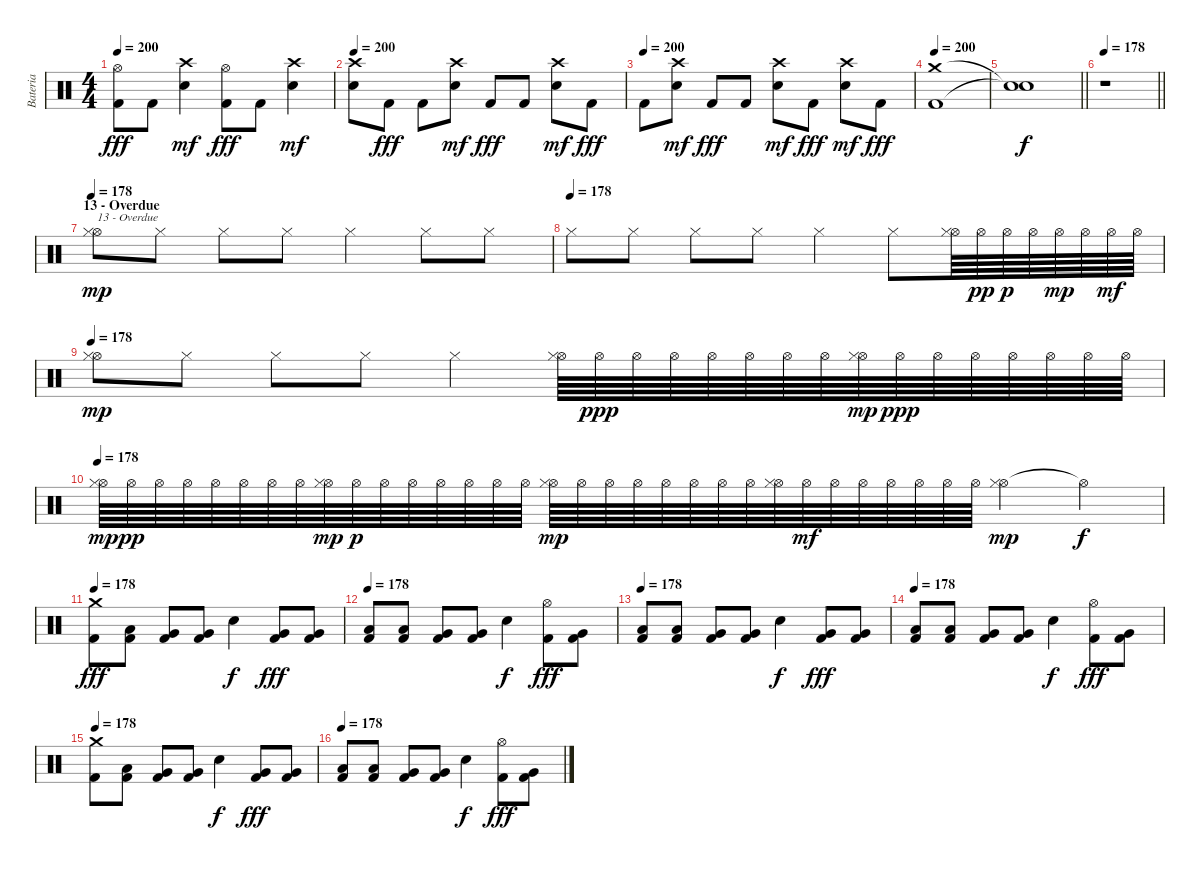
\track ("Bateria" "Bateria") {instrument percussion}
\staff {score}
\articulation defaults
\ts (4 4)
\tempo 200
\clef neutral
\ks c
("Hi-Hat (open)" "Kick (hit) 2").8{dy fff} "Kick (hit) 2".8 ("Crash high (hit)" "Electric Snare (hit)").4{dy mf} ("Hi-Hat (open)" "Kick (hit) 2").8{dy fff} "Kick (hit) 2".8 ("Crash high (hit)" "Electric Snare (hit)").4{dy mf} |
\tempo 200
("Crash high (hit)" "Electric Snare (hit)").8 "Kick (hit) 2".8{dy fff} "Kick (hit) 2".8 ("Crash high (hit)" "Electric Snare (hit)").8{dy mf} "Kick (hit) 2".8{dy fff} "Kick (hit) 2".8 ("Crash high (hit)" "Electric Snare (hit)").8{dy mf} "Kick (hit) 2".8{dy fff} |
\tempo (200)
"Kick (hit) 2".8 ("Crash high (hit)" "Electric Snare (hit)").8{dy mf} "Kick (hit) 2".8{dy fff} "Kick (hit) 2".8 ("Crash high (hit)" "Electric Snare (hit)").8{dy mf} "Kick (hit) 2".8{dy fff} ("Crash high (hit)" "Electric Snare (hit)").8{dy mf} "Kick (hit) 2".8{dy fff} |
\tempo 200
("Crash medium (hit)" "Kick (hit) 2").1 |
\barLineRight lightlight
("Snare (hit)"{t} "Snare (hit)"{t}).1{dy f} |
\tempo 178
\barLineRight lightlight
r.1 |
\section ("" "13 - Overdue")
\tempo 178
("Hi-Hat (open)" "Hi-Hat (closed)").8{txt "13 - Overdue" dy mp} "Hi-Hat (closed)".8 "Hi-Hat (closed)".8 "Hi-Hat (closed)".8 "Hi-Hat (closed)".4 "Hi-Hat (closed)".8 "Hi-Hat (closed)".8 |
\tempo (178)
"Hi-Hat (closed)".8 "Hi-Hat (closed)".8 "Hi-Hat (closed)".8 "Hi-Hat (closed)".8 "Hi-Hat (closed)".4 "Hi-Hat (closed)".8 ("Hi-Hat (open)" "Hi-Hat (closed)").64 "Hi-Hat (open)".64{dy pp} "Hi-Hat (open)".64{dy p} "Hi-Hat (open)".64 "Hi-Hat (open)".64{dy mp} "Hi-Hat (open)".64 "Hi-Hat (open)".64{dy mf} "Hi-Hat (open)".64 |
\tempo 178
("Hi-Hat (open)" "Hi-Hat (closed)").8{dy mp} "Hi-Hat (closed)".8 "Hi-Hat (closed)".8 "Hi-Hat (closed)".8 "Hi-Hat (closed)".4 ("Hi-Hat (open)" "Hi-Hat (closed)").64 "Hi-Hat (open)".64{dy ppp} "Hi-Hat (open)".64 "Hi-Hat (open)".64 "Hi-Hat (open)".64 "Hi-Hat (open)".64 "Hi-Hat (open)".64 "Hi-Hat (open)".64 ("Hi-Hat (open)" "Hi-Hat (closed)").64{dy mp} "Hi-Hat (open)".64{dy ppp} "Hi-Hat (open)".64 "Hi-Hat (open)".64 "Hi-Hat (open)".64 "Hi-Hat (open)".64 "Hi-Hat (open)".64 "Hi-Hat (open)".64 |
\tempo 178
("Hi-Hat (open)" "Hi-Hat (closed)").64{dy mp} "Hi-Hat (open)".64{dy pp} "Hi-Hat (open)".64 "Hi-Hat (open)".64 "Hi-Hat (open)".64 "Hi-Hat (open)".64 "Hi-Hat (open)".64 "Hi-Hat (open)".64 ("Hi-Hat (open)" "Hi-Hat (closed)").64{dy mp} "Hi-Hat (open)".64{dy p} "Hi-Hat (open)".64 "Hi-Hat (open)".64 "Hi-Hat (open)".64 "Hi-Hat (open)".64 "Hi-Hat (open)".64 "Hi-Hat (open)".64 ("Hi-Hat (open)" "Hi-Hat (closed)").64{dy mp} "Hi-Hat (open)".64 "Hi-Hat (open)".64 "Hi-Hat (open)".64 "Hi-Hat (open)".64 "Hi-Hat (open)".64 "Hi-Hat (open)".64 "Hi-Hat (open)".64 ("Hi-Hat (open)" "Hi-Hat (closed)").64 "Hi-Hat (open)".64{dy mf} "Hi-Hat (open)".64 "Hi-Hat (open)".64 "Hi-Hat (open)".64 "Hi-Hat (open)".64 "Hi-Hat (open)".64 "Hi-Hat (open)".64 ("Hi-Hat (open)" "Hi-Hat (closed)").4{dy mp} "Hi-Hat (open)"{t}.4{dy f} |
\tempo 178
("Crash medium (hit)" "Kick (hit) 2").8{dy fff} ("Low Tom (hit)" "Kick (hit) 2").8 ("Very Low Tom (hit)" "Kick (hit) 2").8 ("Very Low Tom (hit)" "Kick (hit) 2").8 "Electric Snare (hit)".4{dy f} ("Very Low Tom (hit)" "Kick (hit) 2").8{dy fff} ("Very Low Tom (hit)" "Kick (hit) 2").8 |
\tempo 178
("Low Tom (hit)" "Kick (hit) 2").8 ("Low Tom (hit)" "Kick (hit) 2").8 ("Very Low Tom (hit)" "Kick (hit) 2").8 ("Very Low Tom (hit)" "Kick (hit) 2").8 "Electric Snare (hit)".4{dy f} ("Hi-Hat (open)" "Kick (hit) 2").8{dy fff} ("Very Low Tom (hit)" "Kick (hit) 2").8 |
\tempo 178
("Low Tom (hit)" "Kick (hit) 2").8 ("Low Tom (hit)" "Kick (hit) 2").8 ("Very Low Tom (hit)" "Kick (hit) 2").8 ("Very Low Tom (hit)" "Kick (hit) 2").8 "Electric Snare (hit)".4{dy f} ("Very Low Tom (hit)" "Kick (hit) 2").8{dy fff} ("Very Low Tom (hit)" "Kick (hit) 2").8 |
\tempo 178
("Low Tom (hit)" "Kick (hit) 2").8 ("Low Tom (hit)" "Kick (hit) 2").8 ("Very Low Tom (hit)" "Kick (hit) 2").8 ("Very Low Tom (hit)" "Kick (hit) 2").8 "Electric Snare (hit)".4{dy f} ("Hi-Hat (open)" "Kick (hit) 2").8{dy fff} ("Very Low Tom (hit)" "Kick (hit) 2").8 |
\tempo 178
("Crash medium (hit)" "Kick (hit) 2").8 ("Low Tom (hit)" "Kick (hit) 2").8 ("Very Low Tom (hit)" "Kick (hit) 2").8 ("Very Low Tom (hit)" "Kick (hit) 2").8 "Electric Snare (hit)".4{dy f} ("Very Low Tom (hit)" "Kick (hit) 2").8{dy fff} ("Very Low Tom (hit)" "Kick (hit) 2").8 |
\tempo 178
("Low Tom (hit)" "Kick (hit) 2").8 ("Low Tom (hit)" "Kick (hit) 2").8 ("Very Low Tom (hit)" "Kick (hit) 2").8 ("Very Low Tom (hit)" "Kick (hit) 2").8 "Electric Snare (hit)".4{dy f} ("Hi-Hat (open)" "Kick (hit) 2").8{dy fff} ("Very Low Tom (hit)" "Kick (hit) 2").8
